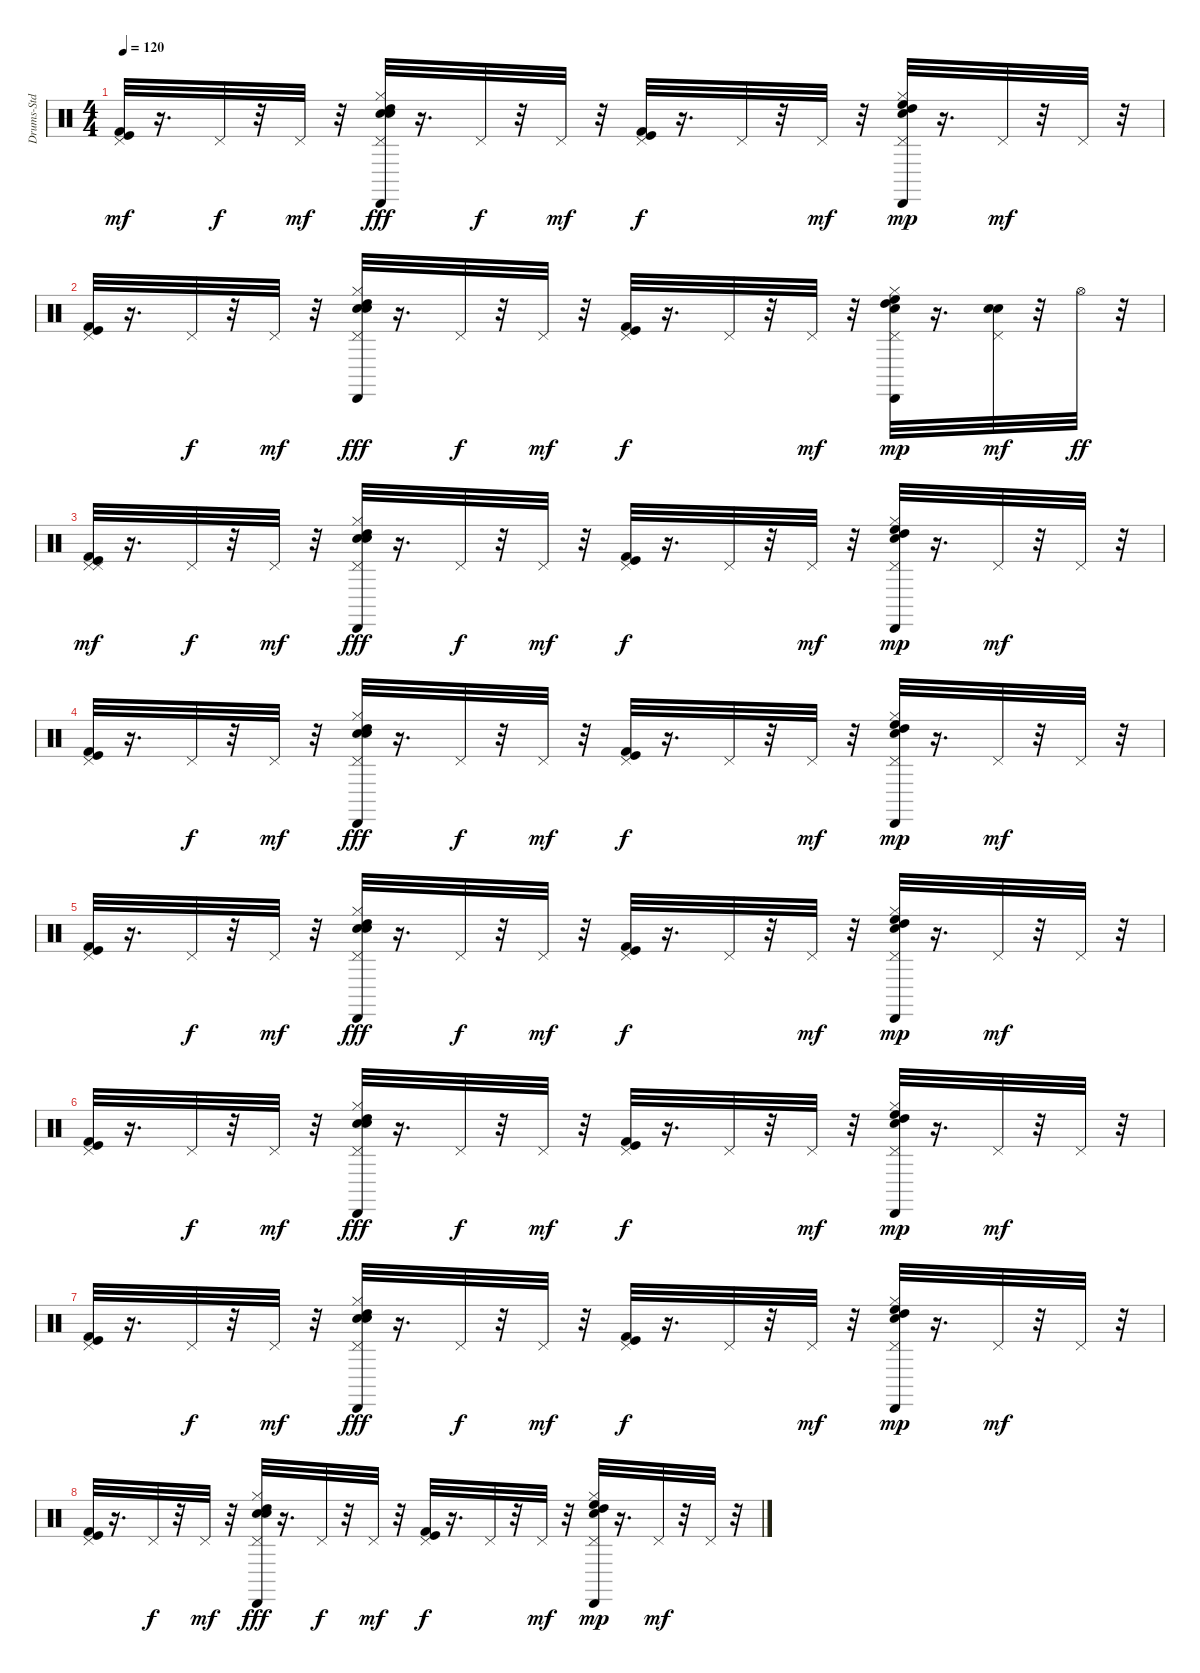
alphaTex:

\track ("Drums-Std" "Drums-Std") {instrument percussion}
\staff {score}
\articulation defaults
\ts (4 4)
\tempo 120
\clef neutral
\ks c
("Pedal Hi-Hat (hit)" "Kick (hit) 2" "Kick (hit)").32{dy mf} r.16{d} "Pedal Hi-Hat (hit)".32{dy f} r.32 "Pedal Hi-Hat (hit)".32{dy mf} r.32 ("Snare (hit) 2" "High Tom (hit)" "Cabasa (hit)" "Hi-Hat (closed)" "Pedal Hi-Hat (hit)" "Electric Snare (hit)").32{dy fff} r.16{d} "Pedal Hi-Hat (hit)".32{dy f} r.32 "Pedal Hi-Hat (hit)".32{dy mf} r.32 ("Pedal Hi-Hat (hit)" "Kick (hit) 2" "Kick (hit)").32{dy f} r.16{d} "Pedal Hi-Hat (hit)".32 r.32 "Pedal Hi-Hat (hit)".32{dy mf} r.32 ("Snare (hit) 2" "High Floor Tom (hit)" "High Tom (hit)" "Cabasa (hit)" "Hi-Hat (closed)" "Pedal Hi-Hat (hit)").32{dy mp} r.16{d} "Pedal Hi-Hat (hit)".32{dy mf} r.32 "Pedal Hi-Hat (hit)".32 r.32 |
("Pedal Hi-Hat (hit)" "Kick (hit) 2" "Kick (hit)").32 r.16{d} "Pedal Hi-Hat (hit)".32{dy f} r.32 "Pedal Hi-Hat (hit)".32{dy mf} r.32 ("Snare (hit) 2" "High Tom (hit)" "Cabasa (hit)" "Hi-Hat (closed)" "Pedal Hi-Hat (hit)" "Electric Snare (hit)").32{dy fff} r.16{d} "Pedal Hi-Hat (hit)".32{dy f} r.32 "Pedal Hi-Hat (hit)".32{dy mf} r.32 ("Pedal Hi-Hat (hit)" "Kick (hit) 2" "Kick (hit)").32{dy f} r.16{d} "Pedal Hi-Hat (hit)".32 r.32 "Pedal Hi-Hat (hit)".32{dy mf} r.32 ("Snare (hit) 2" "High Floor Tom (hit)" "High Tom (hit)" "Cabasa (hit)" "Hi-Hat (closed)" "Pedal Hi-Hat (hit)").32{dy mp} r.16{d} ("Snare (hit) 2" "Electric Snare (hit)" "Pedal Hi-Hat (hit)").32{dy mf} r.32 "Hi-Hat (open)".32{dy ff} r.32 |
("Pedal Hi-Hat (hit)" "Pedal Hi-Hat (hit)" "Kick (hit) 2" "Kick (hit)").32{dy mf} r.16{d} "Pedal Hi-Hat (hit)".32{dy f} r.32 "Pedal Hi-Hat (hit)".32{dy mf} r.32 ("Snare (hit) 2" "High Tom (hit)" "Cabasa (hit)" "Hi-Hat (closed)" "Pedal Hi-Hat (hit)" "Electric Snare (hit)").32{dy fff} r.16{d} "Pedal Hi-Hat (hit)".32{dy f} r.32 "Pedal Hi-Hat (hit)".32{dy mf} r.32 ("Pedal Hi-Hat (hit)" "Kick (hit) 2" "Kick (hit)").32{dy f} r.16{d} "Pedal Hi-Hat (hit)".32 r.32 "Pedal Hi-Hat (hit)".32{dy mf} r.32 ("Snare (hit) 2" "High Floor Tom (hit)" "High Tom (hit)" "Cabasa (hit)" "Hi-Hat (closed)" "Pedal Hi-Hat (hit)").32{dy mp} r.16{d} "Pedal Hi-Hat (hit)".32{dy mf} r.32 "Pedal Hi-Hat (hit)".32 r.32 |
("Pedal Hi-Hat (hit)" "Kick (hit) 2" "Kick (hit)").32 r.16{d} "Pedal Hi-Hat (hit)".32{dy f} r.32 "Pedal Hi-Hat (hit)".32{dy mf} r.32 ("Snare (hit) 2" "High Tom (hit)" "Cabasa (hit)" "Hi-Hat (closed)" "Pedal Hi-Hat (hit)" "Electric Snare (hit)").32{dy fff} r.16{d} "Pedal Hi-Hat (hit)".32{dy f} r.32 "Pedal Hi-Hat (hit)".32{dy mf} r.32 ("Pedal Hi-Hat (hit)" "Kick (hit) 2" "Kick (hit)").32{dy f} r.16{d} "Pedal Hi-Hat (hit)".32 r.32 "Pedal Hi-Hat (hit)".32{dy mf} r.32 ("Snare (hit) 2" "High Floor Tom (hit)" "High Tom (hit)" "Cabasa (hit)" "Hi-Hat (closed)" "Pedal Hi-Hat (hit)").32{dy mp} r.16{d} "Pedal Hi-Hat (hit)".32{dy mf} r.32 "Pedal Hi-Hat (hit)".32 r.32 |
("Pedal Hi-Hat (hit)" "Kick (hit) 2" "Kick (hit)").32 r.16{d} "Pedal Hi-Hat (hit)".32{dy f} r.32 "Pedal Hi-Hat (hit)".32{dy mf} r.32 ("Snare (hit) 2" "High Tom (hit)" "Cabasa (hit)" "Hi-Hat (closed)" "Pedal Hi-Hat (hit)" "Electric Snare (hit)").32{dy fff} r.16{d} "Pedal Hi-Hat (hit)".32{dy f} r.32 "Pedal Hi-Hat (hit)".32{dy mf} r.32 ("Pedal Hi-Hat (hit)" "Kick (hit) 2" "Kick (hit)").32{dy f} r.16{d} "Pedal Hi-Hat (hit)".32 r.32 "Pedal Hi-Hat (hit)".32{dy mf} r.32 ("Snare (hit) 2" "High Floor Tom (hit)" "High Tom (hit)" "Cabasa (hit)" "Hi-Hat (closed)" "Pedal Hi-Hat (hit)").32{dy mp} r.16{d} "Pedal Hi-Hat (hit)".32{dy mf} r.32 "Pedal Hi-Hat (hit)".32 r.32 |
("Pedal Hi-Hat (hit)" "Kick (hit) 2" "Kick (hit)").32 r.16{d} "Pedal Hi-Hat (hit)".32{dy f} r.32 "Pedal Hi-Hat (hit)".32{dy mf} r.32 ("Snare (hit) 2" "High Tom (hit)" "Cabasa (hit)" "Hi-Hat (closed)" "Pedal Hi-Hat (hit)" "Electric Snare (hit)").32{dy fff} r.16{d} "Pedal Hi-Hat (hit)".32{dy f} r.32 "Pedal Hi-Hat (hit)".32{dy mf} r.32 ("Pedal Hi-Hat (hit)" "Kick (hit) 2" "Kick (hit)").32{dy f} r.16{d} "Pedal Hi-Hat (hit)".32 r.32 "Pedal Hi-Hat (hit)".32{dy mf} r.32 ("Snare (hit) 2" "High Floor Tom (hit)" "High Tom (hit)" "Cabasa (hit)" "Hi-Hat (closed)" "Pedal Hi-Hat (hit)").32{dy mp} r.16{d} "Pedal Hi-Hat (hit)".32{dy mf} r.32 "Pedal Hi-Hat (hit)".32 r.32 |
("Pedal Hi-Hat (hit)" "Kick (hit) 2" "Kick (hit)").32 r.16{d} "Pedal Hi-Hat (hit)".32{dy f} r.32 "Pedal Hi-Hat (hit)".32{dy mf} r.32 ("Snare (hit) 2" "High Tom (hit)" "Cabasa (hit)" "Hi-Hat (closed)" "Pedal Hi-Hat (hit)" "Electric Snare (hit)").32{dy fff} r.16{d} "Pedal Hi-Hat (hit)".32{dy f} r.32 "Pedal Hi-Hat (hit)".32{dy mf} r.32 ("Pedal Hi-Hat (hit)" "Kick (hit) 2" "Kick (hit)").32{dy f} r.16{d} "Pedal Hi-Hat (hit)".32 r.32 "Pedal Hi-Hat (hit)".32{dy mf} r.32 ("Snare (hit) 2" "High Floor Tom (hit)" "High Tom (hit)" "Cabasa (hit)" "Hi-Hat (closed)" "Pedal Hi-Hat (hit)").32{dy mp} r.16{d} "Pedal Hi-Hat (hit)".32{dy mf} r.32 "Pedal Hi-Hat (hit)".32 r.32 |
("Pedal Hi-Hat (hit)" "Kick (hit) 2" "Kick (hit)").32 r.16{d} "Pedal Hi-Hat (hit)".32{dy f} r.32 "Pedal Hi-Hat (hit)".32{dy mf} r.32 ("Snare (hit) 2" "High Tom (hit)" "Cabasa (hit)" "Hi-Hat (closed)" "Pedal Hi-Hat (hit)" "Electric Snare (hit)").32{dy fff} r.16{d} "Pedal Hi-Hat (hit)".32{dy f} r.32 "Pedal Hi-Hat (hit)".32{dy mf} r.32 ("Pedal Hi-Hat (hit)" "Kick (hit) 2" "Kick (hit)").32{dy f} r.16{d} "Pedal Hi-Hat (hit)".32 r.32 "Pedal Hi-Hat (hit)".32{dy mf} r.32 ("Snare (hit) 2" "High Floor Tom (hit)" "High Tom (hit)" "Cabasa (hit)" "Hi-Hat (closed)" "Pedal Hi-Hat (hit)").32{dy mp} r.16{d} "Pedal Hi-Hat (hit)".32{dy mf} r.32 "Pedal Hi-Hat (hit)".32 r.32
